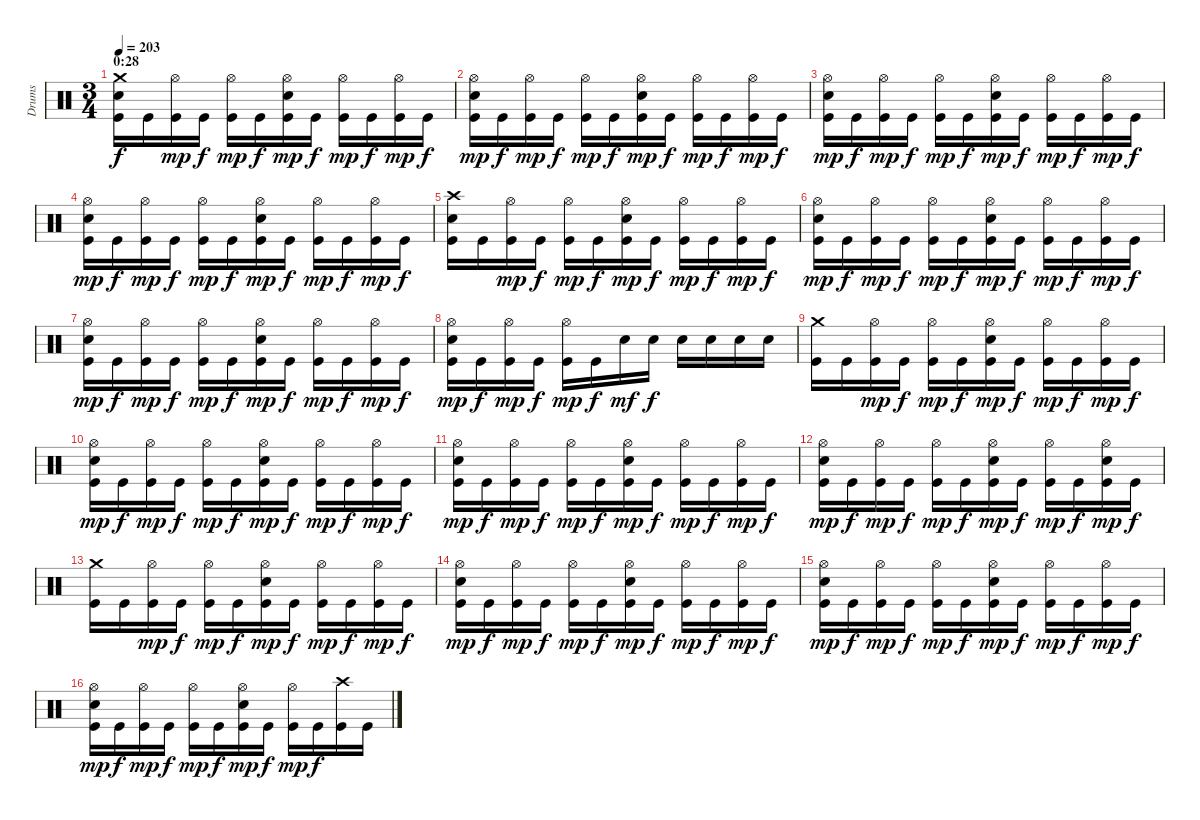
\track ("Drums" "Drums") {instrument percussion}
\staff {score}
\articulation defaults
\ts (3 4)
\section ("" "0:28")
\tempo 203
\clef neutral
\ks c
("Crash medium (hit)" "Electric Snare (hit)" "Kick (hit)").16{dy f} "Kick (hit)".16 ("Hi-Hat (open)" "Kick (hit)").16{dy mp} "Kick (hit)".16{dy f} ("Hi-Hat (open)" "Kick (hit)").16{dy mp} "Kick (hit)".16{dy f} ("Hi-Hat (open)" "Electric Snare (hit)" "Kick (hit)").16{dy mp} "Kick (hit)".16{dy f} ("Hi-Hat (open)" "Kick (hit)").16{dy mp} "Kick (hit)".16{dy f} ("Hi-Hat (open)" "Kick (hit)").16{dy mp} "Kick (hit)".16{dy f} |
("Hi-Hat (open)" "Electric Snare (hit)" "Kick (hit)").16{dy mp} "Kick (hit)".16{dy f} ("Hi-Hat (open)" "Kick (hit)").16{dy mp} "Kick (hit)".16{dy f} ("Hi-Hat (open)" "Kick (hit)").16{dy mp} "Kick (hit)".16{dy f} ("Hi-Hat (open)" "Electric Snare (hit)" "Kick (hit)").16{dy mp} "Kick (hit)".16{dy f} ("Hi-Hat (open)" "Kick (hit)").16{dy mp} "Kick (hit)".16{dy f} ("Hi-Hat (open)" "Kick (hit)").16{dy mp} "Kick (hit)".16{dy f} |
("Hi-Hat (open)" "Electric Snare (hit)" "Kick (hit)").16{dy mp} "Kick (hit)".16{dy f} ("Hi-Hat (open)" "Kick (hit)").16{dy mp} "Kick (hit)".16{dy f} ("Hi-Hat (open)" "Kick (hit)").16{dy mp} "Kick (hit)".16{dy f} ("Hi-Hat (open)" "Electric Snare (hit)" "Kick (hit)").16{dy mp} "Kick (hit)".16{dy f} ("Hi-Hat (open)" "Kick (hit)").16{dy mp} "Kick (hit)".16{dy f} ("Hi-Hat (open)" "Kick (hit)").16{dy mp} "Kick (hit)".16{dy f} |
("Hi-Hat (open)" "Electric Snare (hit)" "Kick (hit)").16{dy mp} "Kick (hit)".16{dy f} ("Hi-Hat (open)" "Kick (hit)").16{dy mp} "Kick (hit)".16{dy f} ("Hi-Hat (open)" "Kick (hit)").16{dy mp} "Kick (hit)".16{dy f} ("Hi-Hat (open)" "Electric Snare (hit)" "Kick (hit)").16{dy mp} "Kick (hit)".16{dy f} ("Hi-Hat (open)" "Kick (hit)").16{dy mp} "Kick (hit)".16{dy f} ("Hi-Hat (open)" "Kick (hit)").16{dy mp} "Kick (hit)".16{dy f} |
("Crash high (hit)" "Electric Snare (hit)" "Kick (hit)").16 "Kick (hit)".16 ("Hi-Hat (open)" "Kick (hit)").16{dy mp} "Kick (hit)".16{dy f} ("Hi-Hat (open)" "Kick (hit)").16{dy mp} "Kick (hit)".16{dy f} ("Hi-Hat (open)" "Electric Snare (hit)" "Kick (hit)").16{dy mp} "Kick (hit)".16{dy f} ("Hi-Hat (open)" "Kick (hit)").16{dy mp} "Kick (hit)".16{dy f} ("Hi-Hat (open)" "Kick (hit)").16{dy mp} "Kick (hit)".16{dy f} |
("Hi-Hat (open)" "Electric Snare (hit)" "Kick (hit)").16{dy mp} "Kick (hit)".16{dy f} ("Hi-Hat (open)" "Kick (hit)").16{dy mp} "Kick (hit)".16{dy f} ("Hi-Hat (open)" "Kick (hit)").16{dy mp} "Kick (hit)".16{dy f} ("Hi-Hat (open)" "Electric Snare (hit)" "Kick (hit)").16{dy mp} "Kick (hit)".16{dy f} ("Hi-Hat (open)" "Kick (hit)").16{dy mp} "Kick (hit)".16{dy f} ("Hi-Hat (open)" "Kick (hit)").16{dy mp} "Kick (hit)".16{dy f} |
("Hi-Hat (open)" "Electric Snare (hit)" "Kick (hit)").16{dy mp} "Kick (hit)".16{dy f} ("Hi-Hat (open)" "Kick (hit)").16{dy mp} "Kick (hit)".16{dy f} ("Hi-Hat (open)" "Kick (hit)").16{dy mp} "Kick (hit)".16{dy f} ("Hi-Hat (open)" "Electric Snare (hit)" "Kick (hit)").16{dy mp} "Kick (hit)".16{dy f} ("Hi-Hat (open)" "Kick (hit)").16{dy mp} "Kick (hit)".16{dy f} ("Hi-Hat (open)" "Kick (hit)").16{dy mp} "Kick (hit)".16{dy f} |
("Hi-Hat (open)" "Electric Snare (hit)" "Kick (hit)").16{dy mp} "Kick (hit)".16{dy f} ("Hi-Hat (open)" "Kick (hit)").16{dy mp} "Kick (hit)".16{dy f} ("Hi-Hat (open)" "Kick (hit)").16{dy mp} "Kick (hit)".16{dy f} "Electric Snare (hit)".16{dy mf} "Electric Snare (hit)".16{dy f} "Electric Snare (hit)".16 "Electric Snare (hit)".16 "Electric Snare (hit)".16 "Electric Snare (hit)".16 |
("Crash medium (hit)" "Kick (hit)").16 "Kick (hit)".16 ("Hi-Hat (open)" "Kick (hit)").16{dy mp} "Kick (hit)".16{dy f} ("Hi-Hat (open)" "Kick (hit)").16{dy mp} "Kick (hit)".16{dy f} ("Hi-Hat (open)" "Electric Snare (hit)" "Kick (hit)").16{dy mp} "Kick (hit)".16{dy f} ("Hi-Hat (open)" "Kick (hit)").16{dy mp} "Kick (hit)".16{dy f} ("Hi-Hat (open)" "Kick (hit)").16{dy mp} "Kick (hit)".16{dy f} |
("Hi-Hat (open)" "Electric Snare (hit)" "Kick (hit)").16{dy mp} "Kick (hit)".16{dy f} ("Hi-Hat (open)" "Kick (hit)").16{dy mp} "Kick (hit)".16{dy f} ("Hi-Hat (open)" "Kick (hit)").16{dy mp} "Kick (hit)".16{dy f} ("Hi-Hat (open)" "Electric Snare (hit)" "Kick (hit)").16{dy mp} "Kick (hit)".16{dy f} ("Hi-Hat (open)" "Kick (hit)").16{dy mp} "Kick (hit)".16{dy f} ("Hi-Hat (open)" "Kick (hit)").16{dy mp} "Kick (hit)".16{dy f} |
("Hi-Hat (open)" "Electric Snare (hit)" "Kick (hit)").16{dy mp} "Kick (hit)".16{dy f} ("Hi-Hat (open)" "Kick (hit)").16{dy mp} "Kick (hit)".16{dy f} ("Hi-Hat (open)" "Kick (hit)").16{dy mp} "Kick (hit)".16{dy f} ("Hi-Hat (open)" "Electric Snare (hit)" "Kick (hit)").16{dy mp} "Kick (hit)".16{dy f} ("Hi-Hat (open)" "Kick (hit)").16{dy mp} "Kick (hit)".16{dy f} ("Hi-Hat (open)" "Kick (hit)").16{dy mp} "Kick (hit)".16{dy f} |
("Hi-Hat (open)" "Electric Snare (hit)" "Kick (hit)").16{dy mp} "Kick (hit)".16{dy f} ("Hi-Hat (open)" "Kick (hit)").16{dy mp} "Kick (hit)".16{dy f} ("Hi-Hat (open)" "Kick (hit)").16{dy mp} "Kick (hit)".16{dy f} ("Hi-Hat (open)" "Electric Snare (hit)" "Kick (hit)").16{dy mp} "Kick (hit)".16{dy f} ("Hi-Hat (open)" "Kick (hit)").16{dy mp} "Kick (hit)".16{dy f} ("Hi-Hat (open)" "Electric Snare (hit)" "Kick (hit)").16{dy mp} "Kick (hit)".16{dy f} |
("Crash medium (hit)" "Kick (hit)").16 "Kick (hit)".16 ("Hi-Hat (open)" "Kick (hit)").16{dy mp} "Kick (hit)".16{dy f} ("Hi-Hat (open)" "Kick (hit)").16{dy mp} "Kick (hit)".16{dy f} ("Hi-Hat (open)" "Electric Snare (hit)" "Kick (hit)").16{dy mp} "Kick (hit)".16{dy f} ("Hi-Hat (open)" "Kick (hit)").16{dy mp} "Kick (hit)".16{dy f} ("Hi-Hat (open)" "Kick (hit)").16{dy mp} "Kick (hit)".16{dy f} |
("Hi-Hat (open)" "Electric Snare (hit)" "Kick (hit)").16{dy mp} "Kick (hit)".16{dy f} ("Hi-Hat (open)" "Kick (hit)").16{dy mp} "Kick (hit)".16{dy f} ("Hi-Hat (open)" "Kick (hit)").16{dy mp} "Kick (hit)".16{dy f} ("Hi-Hat (open)" "Electric Snare (hit)" "Kick (hit)").16{dy mp} "Kick (hit)".16{dy f} ("Hi-Hat (open)" "Kick (hit)").16{dy mp} "Kick (hit)".16{dy f} ("Hi-Hat (open)" "Kick (hit)").16{dy mp} "Kick (hit)".16{dy f} |
("Hi-Hat (open)" "Electric Snare (hit)" "Kick (hit)").16{dy mp} "Kick (hit)".16{dy f} ("Hi-Hat (open)" "Kick (hit)").16{dy mp} "Kick (hit)".16{dy f} ("Hi-Hat (open)" "Kick (hit)").16{dy mp} "Kick (hit)".16{dy f} ("Hi-Hat (open)" "Electric Snare (hit)" "Kick (hit)").16{dy mp} "Kick (hit)".16{dy f} ("Hi-Hat (open)" "Kick (hit)").16{dy mp} "Kick (hit)".16{dy f} ("Hi-Hat (open)" "Kick (hit)").16{dy mp} "Kick (hit)".16{dy f} |
("Hi-Hat (open)" "Electric Snare (hit)" "Kick (hit)").16{dy mp} "Kick (hit)".16{dy f} ("Hi-Hat (open)" "Kick (hit)").16{dy mp} "Kick (hit)".16{dy f} ("Hi-Hat (open)" "Kick (hit)").16{dy mp} "Kick (hit)".16{dy f} ("Hi-Hat (open)" "Electric Snare (hit)" "Kick (hit)").16{dy mp} "Kick (hit)".16{dy f} ("Hi-Hat (open)" "Kick (hit)").16{dy mp} "Kick (hit)".16{dy f} ("Crash high (hit)" "Kick (hit)").16 "Kick (hit)".16
